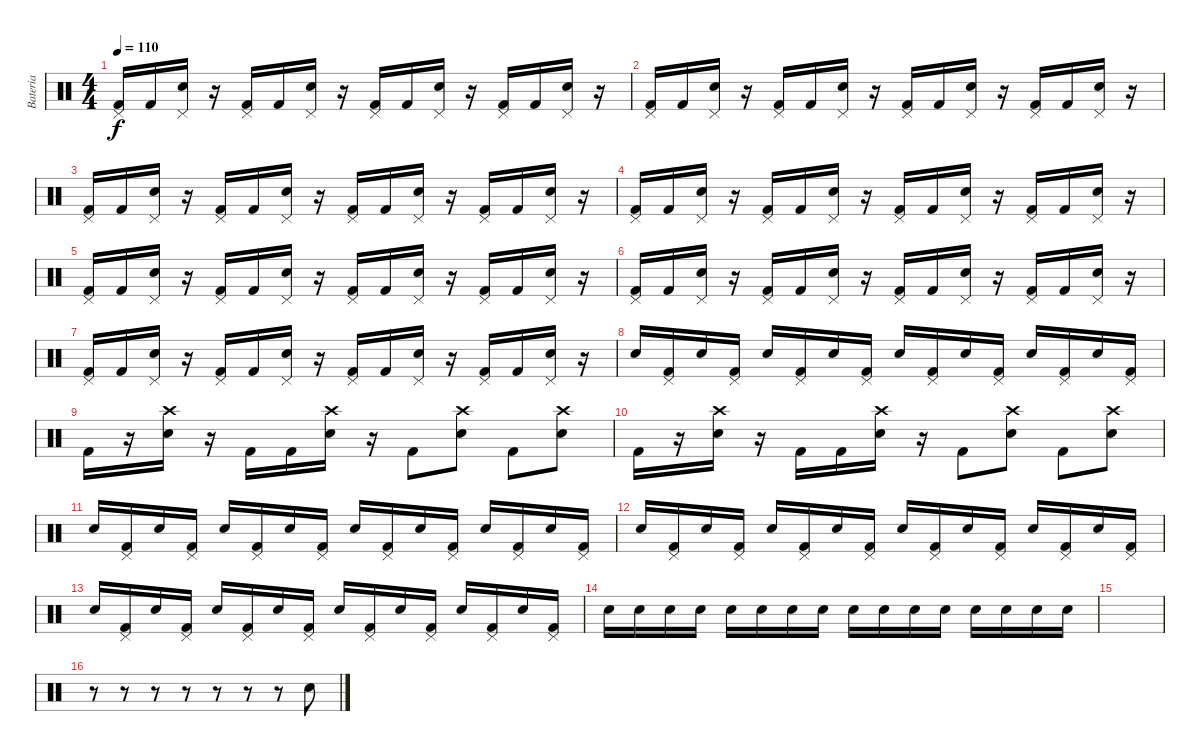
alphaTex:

\track ("Bateria" "Bateria") {instrument percussion}
\staff {score}
\articulation defaults
\ts (4 4)
\tempo 110
\clef neutral
\ks c
("Pedal Hi-Hat (hit)" "Kick (hit) 2").16{dy f} "Kick (hit) 2".16 ("Pedal Hi-Hat (hit)" "Electric Snare (hit)").16 r.16 ("Pedal Hi-Hat (hit)" "Kick (hit) 2").16 "Kick (hit) 2".16 ("Pedal Hi-Hat (hit)" "Electric Snare (hit)").16 r.16 ("Pedal Hi-Hat (hit)" "Kick (hit) 2").16 "Kick (hit) 2".16 ("Pedal Hi-Hat (hit)" "Electric Snare (hit)").16 r.16 ("Pedal Hi-Hat (hit)" "Kick (hit) 2").16 "Kick (hit) 2".16 ("Pedal Hi-Hat (hit)" "Electric Snare (hit)").16 r.16 |
("Pedal Hi-Hat (hit)" "Kick (hit) 2").16 "Kick (hit) 2".16 ("Pedal Hi-Hat (hit)" "Electric Snare (hit)").16 r.16 ("Pedal Hi-Hat (hit)" "Kick (hit) 2").16 "Kick (hit) 2".16 ("Pedal Hi-Hat (hit)" "Electric Snare (hit)").16 r.16 ("Pedal Hi-Hat (hit)" "Kick (hit) 2").16 "Kick (hit) 2".16 ("Pedal Hi-Hat (hit)" "Electric Snare (hit)").16 r.16 ("Pedal Hi-Hat (hit)" "Kick (hit) 2").16 "Kick (hit) 2".16 ("Pedal Hi-Hat (hit)" "Electric Snare (hit)").16 r.16 |
("Pedal Hi-Hat (hit)" "Kick (hit) 2").16 "Kick (hit) 2".16 ("Pedal Hi-Hat (hit)" "Electric Snare (hit)").16 r.16 ("Pedal Hi-Hat (hit)" "Kick (hit) 2").16 "Kick (hit) 2".16 ("Pedal Hi-Hat (hit)" "Electric Snare (hit)").16 r.16 ("Pedal Hi-Hat (hit)" "Kick (hit) 2").16 "Kick (hit) 2".16 ("Pedal Hi-Hat (hit)" "Electric Snare (hit)").16 r.16 ("Pedal Hi-Hat (hit)" "Kick (hit) 2").16 "Kick (hit) 2".16 ("Pedal Hi-Hat (hit)" "Electric Snare (hit)").16 r.16 |
("Pedal Hi-Hat (hit)" "Kick (hit) 2").16 "Kick (hit) 2".16 ("Pedal Hi-Hat (hit)" "Electric Snare (hit)").16 r.16 ("Pedal Hi-Hat (hit)" "Kick (hit) 2").16 "Kick (hit) 2".16 ("Pedal Hi-Hat (hit)" "Electric Snare (hit)").16 r.16 ("Pedal Hi-Hat (hit)" "Kick (hit) 2").16 "Kick (hit) 2".16 ("Pedal Hi-Hat (hit)" "Electric Snare (hit)").16 r.16 ("Pedal Hi-Hat (hit)" "Kick (hit) 2").16 "Kick (hit) 2".16 ("Pedal Hi-Hat (hit)" "Electric Snare (hit)").16 r.16 |
("Pedal Hi-Hat (hit)" "Kick (hit) 2").16 "Kick (hit) 2".16 ("Pedal Hi-Hat (hit)" "Electric Snare (hit)").16 r.16 ("Pedal Hi-Hat (hit)" "Kick (hit) 2").16 "Kick (hit) 2".16 ("Pedal Hi-Hat (hit)" "Electric Snare (hit)").16 r.16 ("Pedal Hi-Hat (hit)" "Kick (hit) 2").16 "Kick (hit) 2".16 ("Pedal Hi-Hat (hit)" "Electric Snare (hit)").16 r.16 ("Pedal Hi-Hat (hit)" "Kick (hit) 2").16 "Kick (hit) 2".16 ("Pedal Hi-Hat (hit)" "Electric Snare (hit)").16 r.16 |
("Pedal Hi-Hat (hit)" "Kick (hit) 2").16 "Kick (hit) 2".16 ("Pedal Hi-Hat (hit)" "Electric Snare (hit)").16 r.16 ("Pedal Hi-Hat (hit)" "Kick (hit) 2").16 "Kick (hit) 2".16 ("Pedal Hi-Hat (hit)" "Electric Snare (hit)").16 r.16 ("Pedal Hi-Hat (hit)" "Kick (hit) 2").16 "Kick (hit) 2".16 ("Pedal Hi-Hat (hit)" "Electric Snare (hit)").16 r.16 ("Pedal Hi-Hat (hit)" "Kick (hit) 2").16 "Kick (hit) 2".16 ("Pedal Hi-Hat (hit)" "Electric Snare (hit)").16 r.16 |
("Pedal Hi-Hat (hit)" "Kick (hit) 2").16 "Kick (hit) 2".16 ("Pedal Hi-Hat (hit)" "Electric Snare (hit)").16 r.16 ("Pedal Hi-Hat (hit)" "Kick (hit) 2").16 "Kick (hit) 2".16 ("Pedal Hi-Hat (hit)" "Electric Snare (hit)").16 r.16 ("Pedal Hi-Hat (hit)" "Kick (hit) 2").16 "Kick (hit) 2".16 ("Pedal Hi-Hat (hit)" "Electric Snare (hit)").16 r.16 ("Pedal Hi-Hat (hit)" "Kick (hit) 2").16 "Kick (hit) 2".16 ("Pedal Hi-Hat (hit)" "Electric Snare (hit)").16 r.16 |
"Electric Snare (hit)".16 ("Pedal Hi-Hat (hit)" "Kick (hit) 2").16 "Electric Snare (hit)".16 ("Pedal Hi-Hat (hit)" "Kick (hit) 2").16 "Electric Snare (hit)".16 ("Pedal Hi-Hat (hit)" "Kick (hit) 2").16 "Electric Snare (hit)".16 ("Pedal Hi-Hat (hit)" "Kick (hit) 2").16 "Electric Snare (hit)".16 ("Pedal Hi-Hat (hit)" "Kick (hit) 2").16 "Electric Snare (hit)".16 ("Pedal Hi-Hat (hit)" "Kick (hit) 2").16 "Electric Snare (hit)".16 ("Pedal Hi-Hat (hit)" "Kick (hit) 2").16 "Electric Snare (hit)".16 ("Pedal Hi-Hat (hit)" "Kick (hit) 2").16 |
"Kick (hit) 2".16 r.16 ("Crash high (hit)" "Electric Snare (hit)").16 r.16 "Kick (hit) 2".16 "Kick (hit) 2".16 ("Crash high (hit)" "Electric Snare (hit)").16 r.16 "Kick (hit) 2".8 ("Crash high (hit)" "Electric Snare (hit)").8 "Kick (hit) 2".8 ("Crash high (hit)" "Electric Snare (hit)").8 |
"Kick (hit) 2".16 r.16 ("Crash high (hit)" "Electric Snare (hit)").16 r.16 "Kick (hit) 2".16 "Kick (hit) 2".16 ("Crash high (hit)" "Electric Snare (hit)").16 r.16 "Kick (hit) 2".8 ("Crash high (hit)" "Electric Snare (hit)").8 "Kick (hit) 2".8 ("Crash high (hit)" "Electric Snare (hit)").8 |
"Electric Snare (hit)".16 ("Pedal Hi-Hat (hit)" "Kick (hit) 2").16 "Electric Snare (hit)".16 ("Pedal Hi-Hat (hit)" "Kick (hit) 2").16 "Electric Snare (hit)".16 ("Pedal Hi-Hat (hit)" "Kick (hit) 2").16 "Electric Snare (hit)".16 ("Pedal Hi-Hat (hit)" "Kick (hit) 2").16 "Electric Snare (hit)".16 ("Pedal Hi-Hat (hit)" "Kick (hit) 2").16 "Electric Snare (hit)".16 ("Pedal Hi-Hat (hit)" "Kick (hit) 2").16 "Electric Snare (hit)".16 ("Pedal Hi-Hat (hit)" "Kick (hit) 2").16 "Electric Snare (hit)".16 ("Pedal Hi-Hat (hit)" "Kick (hit) 2").16 |
"Electric Snare (hit)".16 ("Pedal Hi-Hat (hit)" "Kick (hit) 2").16 "Electric Snare (hit)".16 ("Pedal Hi-Hat (hit)" "Kick (hit) 2").16 "Electric Snare (hit)".16 ("Pedal Hi-Hat (hit)" "Kick (hit) 2").16 "Electric Snare (hit)".16 ("Pedal Hi-Hat (hit)" "Kick (hit) 2").16 "Electric Snare (hit)".16 ("Pedal Hi-Hat (hit)" "Kick (hit) 2").16 "Electric Snare (hit)".16 ("Pedal Hi-Hat (hit)" "Kick (hit) 2").16 "Electric Snare (hit)".16 ("Pedal Hi-Hat (hit)" "Kick (hit) 2").16 "Electric Snare (hit)".16 ("Pedal Hi-Hat (hit)" "Kick (hit) 2").16 |
"Electric Snare (hit)".16 ("Pedal Hi-Hat (hit)" "Kick (hit) 2").16 "Electric Snare (hit)".16 ("Pedal Hi-Hat (hit)" "Kick (hit) 2").16 "Electric Snare (hit)".16 ("Pedal Hi-Hat (hit)" "Kick (hit) 2").16 "Electric Snare (hit)".16 ("Pedal Hi-Hat (hit)" "Kick (hit) 2").16 "Electric Snare (hit)".16 ("Pedal Hi-Hat (hit)" "Kick (hit) 2").16 "Electric Snare (hit)".16 ("Pedal Hi-Hat (hit)" "Kick (hit) 2").16 "Electric Snare (hit)".16 ("Pedal Hi-Hat (hit)" "Kick (hit) 2").16 "Electric Snare (hit)".16 ("Pedal Hi-Hat (hit)" "Kick (hit) 2").16 |
"Electric Snare (hit)".16 "Electric Snare (hit)".16 "Electric Snare (hit)".16 "Electric Snare (hit)".16 "Electric Snare (hit)".16 "Electric Snare (hit)".16 "Electric Snare (hit)".16 "Electric Snare (hit)".16 "Electric Snare (hit)".16 "Electric Snare (hit)".16 "Electric Snare (hit)".16 "Electric Snare (hit)".16 "Electric Snare (hit)".16 "Electric Snare (hit)".16 "Electric Snare (hit)".16 "Electric Snare (hit)".16 |
|
r.8 r.8 r.8 r.8 r.8 r.8 r.8 "Electric Snare (hit)".8
